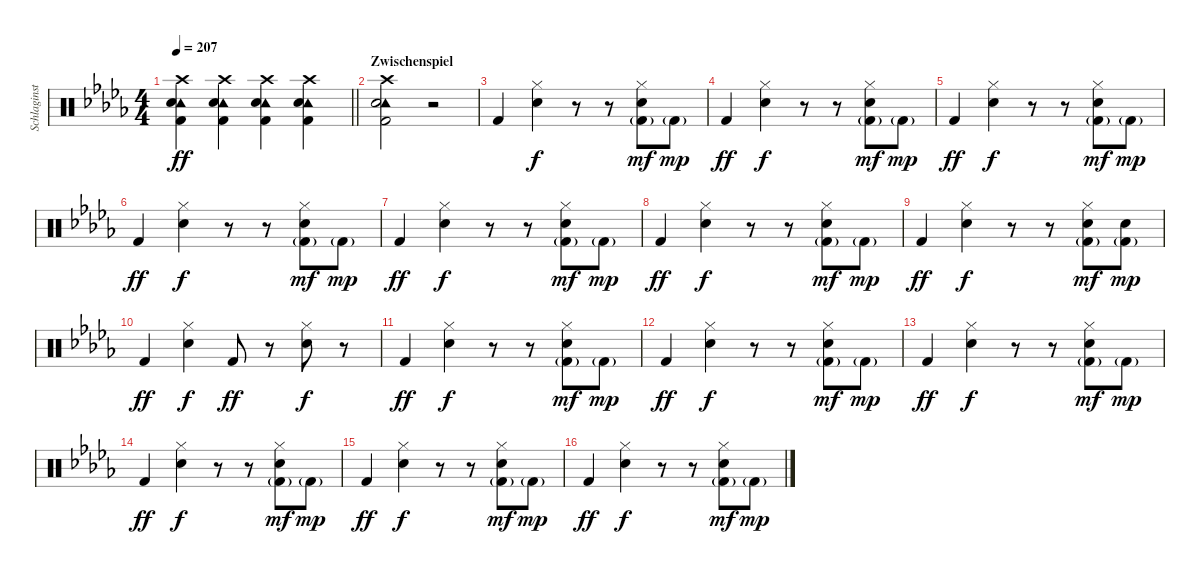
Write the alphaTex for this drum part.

\track ("Schlaginstrumente - Auswahl" "Schlaginst") {instrument percussion}
\staff {score}
\articulation defaults
\ts (4 4)
\tempo 207
\clef neutral
\barLineRight lightlight
\ks bbminor
("Crash high (hit)" "Tambourine (hit)" "Snare (hit) 2" "Kick (hit) 2").4{dy ff} ("Crash high (hit)" "Tambourine (hit)" "Snare (hit) 2" "Kick (hit) 2").4 ("Crash high (hit)" "Tambourine (hit)" "Snare (hit) 2" "Kick (hit) 2").4 ("Crash high (hit)" "Tambourine (hit)" "Snare (hit) 2" "Kick (hit) 2").4 |
\section ("" "Zwischenspiel")
("Crash high (hit)" "Tambourine (hit)" "Snare (hit) 2" "Kick (hit) 2").2 r.2 |
"Kick (hit) 2".4 ("Hi-Hat (closed)" "Snare (hit) 2").4{dy f} r.8 r.8 ("Hi-Hat (closed)" "Snare (hit) 2" "Kick (hit) 2"{g}).8{dy mf} "Kick (hit) 2"{g}.8{dy mp} |
"Kick (hit) 2".4{dy ff} ("Hi-Hat (closed)" "Snare (hit) 2").4{dy f} r.8 r.8 ("Hi-Hat (closed)" "Snare (hit) 2" "Kick (hit) 2"{g}).8{dy mf} "Kick (hit) 2"{g}.8{dy mp} |
"Kick (hit) 2".4{dy ff} ("Hi-Hat (closed)" "Snare (hit) 2").4{dy f} r.8 r.8 ("Hi-Hat (closed)" "Snare (hit) 2" "Kick (hit) 2"{g}).8{dy mf} "Kick (hit) 2"{g}.8{dy mp} |
"Kick (hit) 2".4{dy ff} ("Hi-Hat (closed)" "Snare (hit) 2").4{dy f} r.8 r.8 ("Hi-Hat (closed)" "Snare (hit) 2" "Kick (hit) 2"{g}).8{dy mf} "Kick (hit) 2"{g}.8{dy mp} |
"Kick (hit) 2".4{dy ff} ("Hi-Hat (closed)" "Snare (hit) 2").4{dy f} r.8 r.8 ("Hi-Hat (closed)" "Snare (hit) 2" "Kick (hit) 2"{g}).8{dy mf} "Kick (hit) 2"{g}.8{dy mp} |
"Kick (hit) 2".4{dy ff} ("Hi-Hat (closed)" "Snare (hit) 2").4{dy f} r.8 r.8 ("Hi-Hat (closed)" "Snare (hit) 2" "Kick (hit) 2"{g}).8{dy mf} "Kick (hit) 2"{g}.8{dy mp} |
"Kick (hit) 2".4{dy ff} ("Hi-Hat (closed)" "Snare (hit) 2").4{dy f} r.8 r.8 ("Hi-Hat (closed)" "Snare (hit) 2" "Kick (hit) 2"{g}).8{dy mf} ("Snare (hit) 2" "Kick (hit) 2"{g}).8{dy mp} |
"Kick (hit) 2".4{dy ff} ("Hi-Hat (closed)" "Snare (hit) 2").4{dy f} "Kick (hit) 2".8{dy ff} r.8 ("Hi-Hat (closed)" "Snare (hit) 2").8{dy f} r.8 |
"Kick (hit) 2".4{dy ff} ("Hi-Hat (closed)" "Snare (hit) 2").4{dy f} r.8 r.8 ("Hi-Hat (closed)" "Snare (hit) 2" "Kick (hit) 2"{g}).8{dy mf} "Kick (hit) 2"{g}.8{dy mp} |
"Kick (hit) 2".4{dy ff} ("Hi-Hat (closed)" "Snare (hit) 2").4{dy f} r.8 r.8 ("Hi-Hat (closed)" "Snare (hit) 2" "Kick (hit) 2"{g}).8{dy mf} "Kick (hit) 2"{g}.8{dy mp} |
"Kick (hit) 2".4{dy ff} ("Hi-Hat (closed)" "Snare (hit) 2").4{dy f} r.8 r.8 ("Hi-Hat (closed)" "Snare (hit) 2" "Kick (hit) 2"{g}).8{dy mf} "Kick (hit) 2"{g}.8{dy mp} |
"Kick (hit) 2".4{dy ff} ("Hi-Hat (closed)" "Snare (hit) 2").4{dy f} r.8 r.8 ("Hi-Hat (closed)" "Snare (hit) 2" "Kick (hit) 2"{g}).8{dy mf} "Kick (hit) 2"{g}.8{dy mp} |
"Kick (hit) 2".4{dy ff} ("Hi-Hat (closed)" "Snare (hit) 2").4{dy f} r.8 r.8 ("Hi-Hat (closed)" "Snare (hit) 2" "Kick (hit) 2"{g}).8{dy mf} "Kick (hit) 2"{g}.8{dy mp} |
"Kick (hit) 2".4{dy ff} ("Hi-Hat (closed)" "Snare (hit) 2").4{dy f} r.8 r.8 ("Hi-Hat (closed)" "Snare (hit) 2" "Kick (hit) 2"{g}).8{dy mf} "Kick (hit) 2"{g}.8{dy mp}
